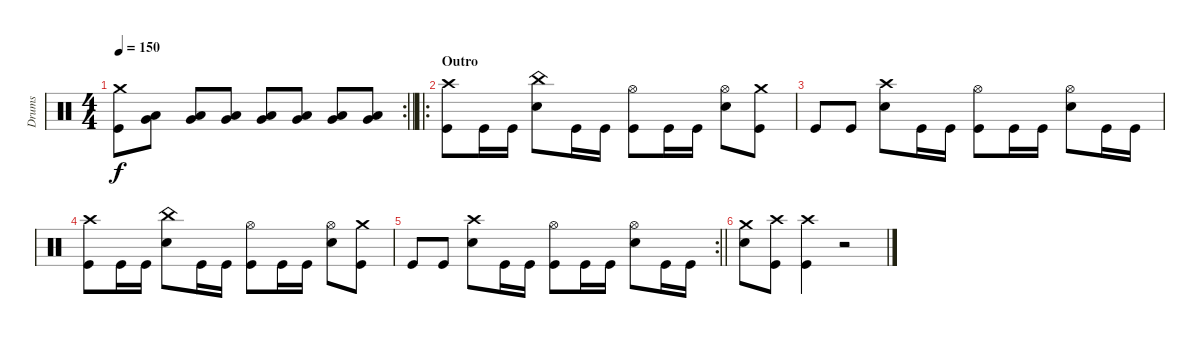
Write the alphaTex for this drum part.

\track ("Drums" "Drums") {instrument percussion}
\staff {score}
\articulation defaults
\rc 2
\ts (4 4)
\tempo 150
\clef neutral
\barLineRight lightlight
\ks c
("Crash medium (hit)" "Kick (hit)").8{dy f} ("Low Tom (hit)" "Very Low Tom (hit)").8 ("Low Tom (hit)" "Very Low Tom (hit)").8 ("Low Tom (hit)" "Very Low Tom (hit)").8 ("Low Tom (hit)" "Very Low Tom (hit)").8 ("Low Tom (hit)" "Very Low Tom (hit)").8 ("Low Tom (hit)" "Very Low Tom (hit)").8 ("Low Tom (hit)" "Very Low Tom (hit)").8 |
\ro
\section ("" "Outro")
("Crash high (hit)" "Kick (hit)").8 "Kick (hit)".16 "Kick (hit)".16 ("China (hit)" "Electric Snare (hit)").8 "Kick (hit)".16 "Kick (hit)".16 ("Hi-Hat (open)" "Kick (hit)").8 "Kick (hit)".16 "Kick (hit)".16 ("Hi-Hat (open)" "Electric Snare (hit)").8 ("Crash medium (hit)" "Kick (hit)").8 |
"Kick (hit)".8 "Kick (hit)".8 ("Crash high (hit)" "Electric Snare (hit)").8 "Kick (hit)".16 "Kick (hit)".16 ("Hi-Hat (open)" "Kick (hit)").8 "Kick (hit)".16 "Kick (hit)".16 ("Hi-Hat (open)" "Electric Snare (hit)").8 "Kick (hit)".16 "Kick (hit)".16 |
("Crash high (hit)" "Kick (hit)").8 "Kick (hit)".16 "Kick (hit)".16 ("China (hit)" "Electric Snare (hit)").8 "Kick (hit)".16 "Kick (hit)".16 ("Hi-Hat (open)" "Kick (hit)").8 "Kick (hit)".16 "Kick (hit)".16 ("Hi-Hat (open)" "Electric Snare (hit)").8 ("Crash medium (hit)" "Kick (hit)").8 |
\rc 2
\barLineRight lightlight "Kick (hit)".8 "Kick (hit)".8
("Crash high (hit)" "Electric Snare (hit)").8 "Kick (hit)".16 "Kick (hit)".16 ("Hi-Hat (open)" "Kick (hit)").8 "Kick (hit)".16 "Kick (hit)".16 ("Hi-Hat (open)" "Electric Snare (hit)").8 "Kick (hit)".16 "Kick (hit)".16 |
("Crash medium (hit)" "Electric Snare (hit)").8 ("Crash high (hit)" "Kick (hit)").8 ("Crash high (hit)" "Kick (hit)").4 r.2
